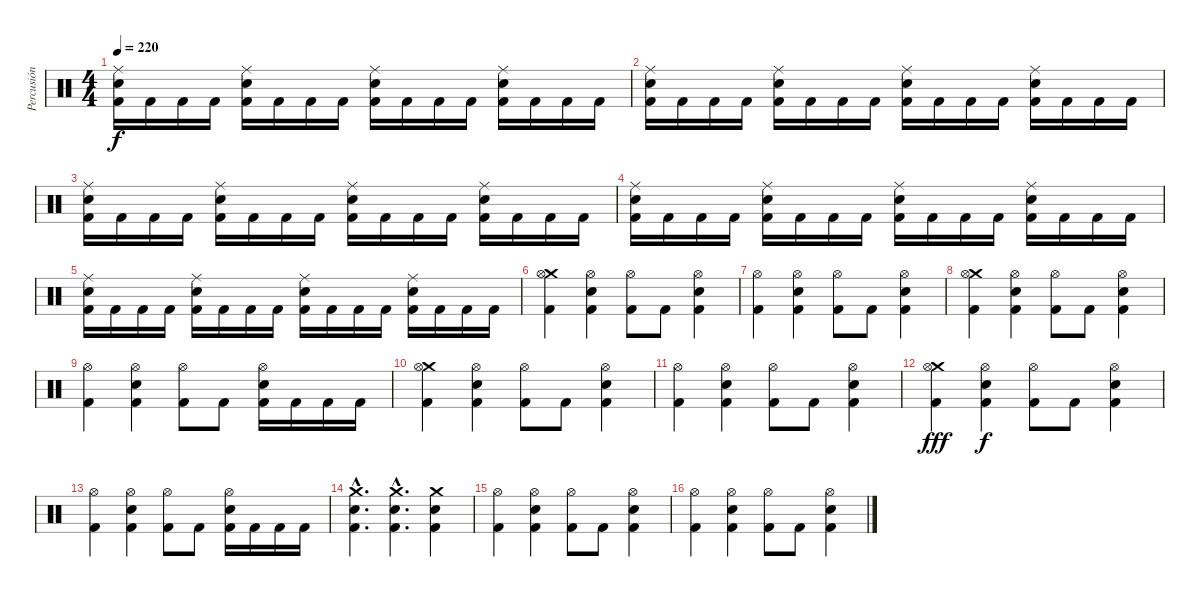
\track ("Percusión" "Percusión") {instrument percussion}
\staff {score}
\articulation defaults
\ts (4 4)
\tempo 220
\clef neutral
\ks c
("Ride (middle)" "Snare (hit) 2" "Kick (hit) 2").16{dy f} "Kick (hit) 2".16 "Kick (hit) 2".16 "Kick (hit) 2".16 ("Ride (middle)" "Snare (hit) 2" "Kick (hit) 2").16 "Kick (hit) 2".16 "Kick (hit) 2".16 "Kick (hit) 2".16 ("Ride (middle)" "Snare (hit) 2" "Kick (hit) 2").16 "Kick (hit) 2".16 "Kick (hit) 2".16 "Kick (hit) 2".16 ("Ride (middle)" "Snare (hit) 2" "Kick (hit) 2").16 "Kick (hit) 2".16 "Kick (hit) 2".16 "Kick (hit) 2".16 |
("Ride (middle)" "Snare (hit) 2" "Kick (hit) 2").16 "Kick (hit) 2".16 "Kick (hit) 2".16 "Kick (hit) 2".16 ("Ride (middle)" "Snare (hit) 2" "Kick (hit) 2").16 "Kick (hit) 2".16 "Kick (hit) 2".16 "Kick (hit) 2".16 ("Ride (middle)" "Snare (hit) 2" "Kick (hit) 2").16 "Kick (hit) 2".16 "Kick (hit) 2".16 "Kick (hit) 2".16 ("Ride (middle)" "Snare (hit) 2" "Kick (hit) 2").16 "Kick (hit) 2".16 "Kick (hit) 2".16 "Kick (hit) 2".16 |
("Ride (middle)" "Snare (hit) 2" "Kick (hit) 2").16 "Kick (hit) 2".16 "Kick (hit) 2".16 "Kick (hit) 2".16 ("Ride (middle)" "Snare (hit) 2" "Kick (hit) 2").16 "Kick (hit) 2".16 "Kick (hit) 2".16 "Kick (hit) 2".16 ("Ride (middle)" "Snare (hit) 2" "Kick (hit) 2").16 "Kick (hit) 2".16 "Kick (hit) 2".16 "Kick (hit) 2".16 ("Ride (middle)" "Snare (hit) 2" "Kick (hit) 2").16 "Kick (hit) 2".16 "Kick (hit) 2".16 "Kick (hit) 2".16 |
("Ride (middle)" "Snare (hit) 2" "Kick (hit) 2").16 "Kick (hit) 2".16 "Kick (hit) 2".16 "Kick (hit) 2".16 ("Ride (middle)" "Snare (hit) 2" "Kick (hit) 2").16 "Kick (hit) 2".16 "Kick (hit) 2".16 "Kick (hit) 2".16 ("Ride (middle)" "Snare (hit) 2" "Kick (hit) 2").16 "Kick (hit) 2".16 "Kick (hit) 2".16 "Kick (hit) 2".16 ("Ride (middle)" "Snare (hit) 2" "Kick (hit) 2").16 "Kick (hit) 2".16 "Kick (hit) 2".16 "Kick (hit) 2".16 |
("Ride (middle)" "Snare (hit) 2" "Kick (hit) 2").16 "Kick (hit) 2".16 "Kick (hit) 2".16 "Kick (hit) 2".16 ("Ride (middle)" "Snare (hit) 2" "Kick (hit) 2").16 "Kick (hit) 2".16 "Kick (hit) 2".16 "Kick (hit) 2".16 ("Ride (middle)" "Snare (hit) 2" "Kick (hit) 2").16 "Kick (hit) 2".16 "Kick (hit) 2".16 "Kick (hit) 2".16 ("Ride (middle)" "Snare (hit) 2" "Kick (hit) 2").16 "Kick (hit) 2".16 "Kick (hit) 2".16 "Kick (hit) 2".16 |
("Crash medium (hit)" "Hi-Hat (open)" "Kick (hit) 2").4 ("Hi-Hat (open)" "Snare (hit) 2" "Kick (hit) 2").4 ("Hi-Hat (open)" "Kick (hit) 2").8 "Kick (hit) 2".8 ("Hi-Hat (open)" "Snare (hit) 2" "Kick (hit) 2").4 |
("Hi-Hat (open)" "Kick (hit) 2").4 ("Hi-Hat (open)" "Snare (hit) 2" "Kick (hit) 2").4 ("Hi-Hat (open)" "Kick (hit) 2").8 "Kick (hit) 2".8 ("Hi-Hat (open)" "Snare (hit) 2" "Kick (hit) 2").4 |
("Crash medium (hit)" "Hi-Hat (open)" "Kick (hit) 2").4 ("Hi-Hat (open)" "Snare (hit) 2" "Kick (hit) 2").4 ("Hi-Hat (open)" "Kick (hit) 2").8 "Kick (hit) 2".8 ("Hi-Hat (open)" "Snare (hit) 2" "Kick (hit) 2").4 |
("Hi-Hat (open)" "Kick (hit) 2").4 ("Hi-Hat (open)" "Snare (hit) 2" "Kick (hit) 2").4 ("Hi-Hat (open)" "Kick (hit) 2").8 "Kick (hit) 2".8 ("Hi-Hat (open)" "Snare (hit) 2" "Kick (hit) 2").16 "Kick (hit) 2".16 "Kick (hit) 2".16 "Kick (hit) 2".16 |
("Crash medium (hit)" "Hi-Hat (open)" "Kick (hit) 2").4 ("Hi-Hat (open)" "Snare (hit) 2" "Kick (hit) 2").4 ("Hi-Hat (open)" "Kick (hit) 2").8 "Kick (hit) 2".8 ("Hi-Hat (open)" "Snare (hit) 2" "Kick (hit) 2").4 |
("Hi-Hat (open)" "Kick (hit) 2").4 ("Hi-Hat (open)" "Snare (hit) 2" "Kick (hit) 2").4 ("Hi-Hat (open)" "Kick (hit) 2").8 "Kick (hit) 2".8 ("Hi-Hat (open)" "Snare (hit) 2" "Kick (hit) 2").4 |
("Crash medium (hit)" "Hi-Hat (open)" "Kick (hit) 2").4{dy fff} ("Hi-Hat (open)" "Snare (hit) 2" "Kick (hit) 2").4{dy f} ("Hi-Hat (open)" "Kick (hit) 2").8 "Kick (hit) 2".8 ("Hi-Hat (open)" "Snare (hit) 2" "Kick (hit) 2").4 |
("Hi-Hat (open)" "Kick (hit) 2").4 ("Hi-Hat (open)" "Snare (hit) 2" "Kick (hit) 2").4 ("Hi-Hat (open)" "Kick (hit) 2").8 "Kick (hit) 2".8 ("Hi-Hat (open)" "Snare (hit) 2" "Kick (hit) 2").16 "Kick (hit) 2".16 "Kick (hit) 2".16 "Kick (hit) 2".16 |
("Crash medium (hit)"{hac} "Snare (hit) 2"{hac} "Kick (hit) 2"{hac}).4{d} ("Crash medium (hit)"{hac} "Snare (hit) 2"{hac} "Kick (hit) 2"{hac}).4{d} ("Crash medium (hit)" "Snare (hit) 2" "Kick (hit) 2").4 |
("Hi-Hat (open)" "Kick (hit) 2").4 ("Hi-Hat (open)" "Snare (hit) 2" "Kick (hit) 2").4 ("Hi-Hat (open)" "Kick (hit) 2").8 "Kick (hit) 2".8 ("Hi-Hat (open)" "Snare (hit) 2" "Kick (hit) 2").4 |
("Hi-Hat (open)" "Kick (hit) 2").4 ("Hi-Hat (open)" "Snare (hit) 2" "Kick (hit) 2").4 ("Hi-Hat (open)" "Kick (hit) 2").8 "Kick (hit) 2".8 ("Hi-Hat (open)" "Snare (hit) 2" "Kick (hit) 2").4
